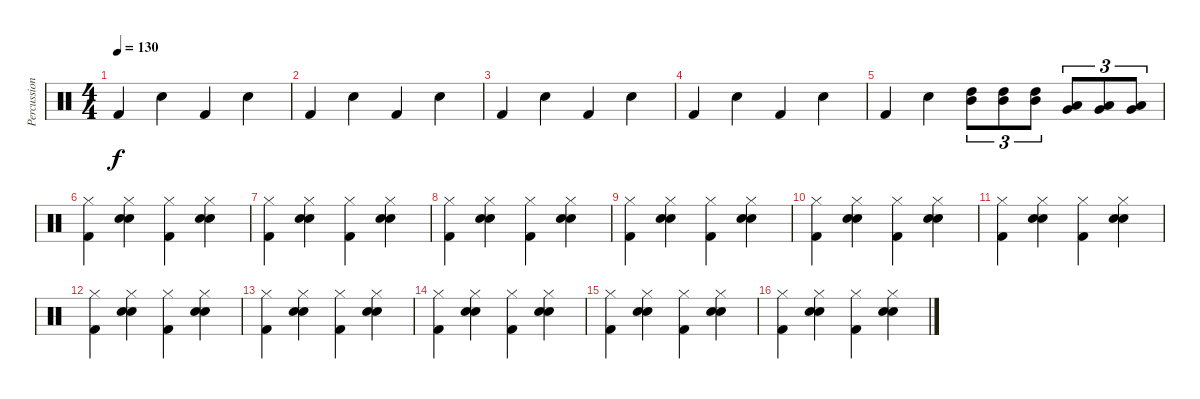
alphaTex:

\track ("Percussion" "Percussion") {instrument percussion bank 177}
\staff {score}
\articulation defaults
\ts (4 4)
\tempo 130
\clef neutral
\ks c "Kick (hit) 2".4{dy f} "Snare (hit) 2".4 "Kick (hit) 2".4 "Snare (hit) 2".4
|
"Kick (hit) 2".4 "Snare (hit) 2".4 "Kick (hit) 2".4 "Snare (hit) 2".4 |
"Kick (hit) 2".4 "Snare (hit) 2".4 "Kick (hit) 2".4 "Snare (hit) 2".4 |
"Kick (hit) 2".4 "Snare (hit) 2".4 "Kick (hit) 2".4 "Snare (hit) 2".4 |
"Kick (hit) 2".4 "Snare (hit) 2".4 ("High Tom (hit)" "Mid Tom (hit)").8{tu (3 2)} ("High Tom (hit)" "Mid Tom (hit)").8{tu (3 2)} ("High Tom (hit)" "Mid Tom (hit)").8{tu (3 2)} ("Low Tom (hit)" "Very Low Tom (hit)").8{tu (3 2)} ("Low Tom (hit)" "Very Low Tom (hit)").8{tu (3 2)} ("Low Tom (hit)" "Very Low Tom (hit)").8{tu (3 2)} |
("Hi-Hat (closed)" "Kick (hit) 2").4 ("Hi-Hat (closed)" "Hand Clap (hit)" "Snare (hit) 2").4 ("Hi-Hat (closed)" "Kick (hit) 2").4 ("Hi-Hat (closed)" "Hand Clap (hit)" "Snare (hit) 2").4 |
("Hi-Hat (closed)" "Kick (hit) 2").4 ("Hi-Hat (closed)" "Hand Clap (hit)" "Snare (hit) 2").4 ("Hi-Hat (closed)" "Kick (hit) 2").4 ("Hi-Hat (closed)" "Hand Clap (hit)" "Snare (hit) 2").4 |
("Hi-Hat (closed)" "Kick (hit) 2").4 ("Hi-Hat (closed)" "Hand Clap (hit)" "Snare (hit) 2").4 ("Hi-Hat (closed)" "Kick (hit) 2").4 ("Hi-Hat (closed)" "Hand Clap (hit)" "Snare (hit) 2").4 |
("Hi-Hat (closed)" "Kick (hit) 2").4 ("Hi-Hat (closed)" "Hand Clap (hit)" "Snare (hit) 2").4 ("Hi-Hat (closed)" "Kick (hit) 2").4 ("Hi-Hat (closed)" "Hand Clap (hit)" "Snare (hit) 2").4 |
("Hi-Hat (closed)" "Kick (hit) 2").4 ("Hi-Hat (closed)" "Hand Clap (hit)" "Snare (hit) 2").4 ("Hi-Hat (closed)" "Kick (hit) 2").4 ("Hi-Hat (closed)" "Hand Clap (hit)" "Snare (hit) 2").4 |
("Hi-Hat (closed)" "Kick (hit) 2").4 ("Hi-Hat (closed)" "Hand Clap (hit)" "Snare (hit) 2").4 ("Hi-Hat (closed)" "Kick (hit) 2").4 ("Hi-Hat (closed)" "Hand Clap (hit)" "Snare (hit) 2").4 |
("Hi-Hat (closed)" "Kick (hit) 2").4 ("Hi-Hat (closed)" "Hand Clap (hit)" "Snare (hit) 2").4 ("Hi-Hat (closed)" "Kick (hit) 2").4 ("Hi-Hat (closed)" "Hand Clap (hit)" "Snare (hit) 2").4 |
("Hi-Hat (closed)" "Kick (hit) 2").4 ("Hi-Hat (closed)" "Hand Clap (hit)" "Snare (hit) 2").4 ("Hi-Hat (closed)" "Kick (hit) 2").4 ("Hi-Hat (closed)" "Hand Clap (hit)" "Snare (hit) 2").4 |
("Hi-Hat (closed)" "Kick (hit) 2").4 ("Hi-Hat (closed)" "Hand Clap (hit)" "Snare (hit) 2").4 ("Hi-Hat (closed)" "Kick (hit) 2").4 ("Hi-Hat (closed)" "Hand Clap (hit)" "Snare (hit) 2").4 |
("Hi-Hat (closed)" "Kick (hit) 2").4 ("Hi-Hat (closed)" "Hand Clap (hit)" "Snare (hit) 2").4 ("Hi-Hat (closed)" "Kick (hit) 2").4 ("Hi-Hat (closed)" "Hand Clap (hit)" "Snare (hit) 2").4 |
("Hi-Hat (closed)" "Kick (hit) 2").4 ("Hi-Hat (closed)" "Hand Clap (hit)" "Snare (hit) 2").4 ("Hi-Hat (closed)" "Kick (hit) 2").4 ("Hi-Hat (closed)" "Hand Clap (hit)" "Snare (hit) 2").4
